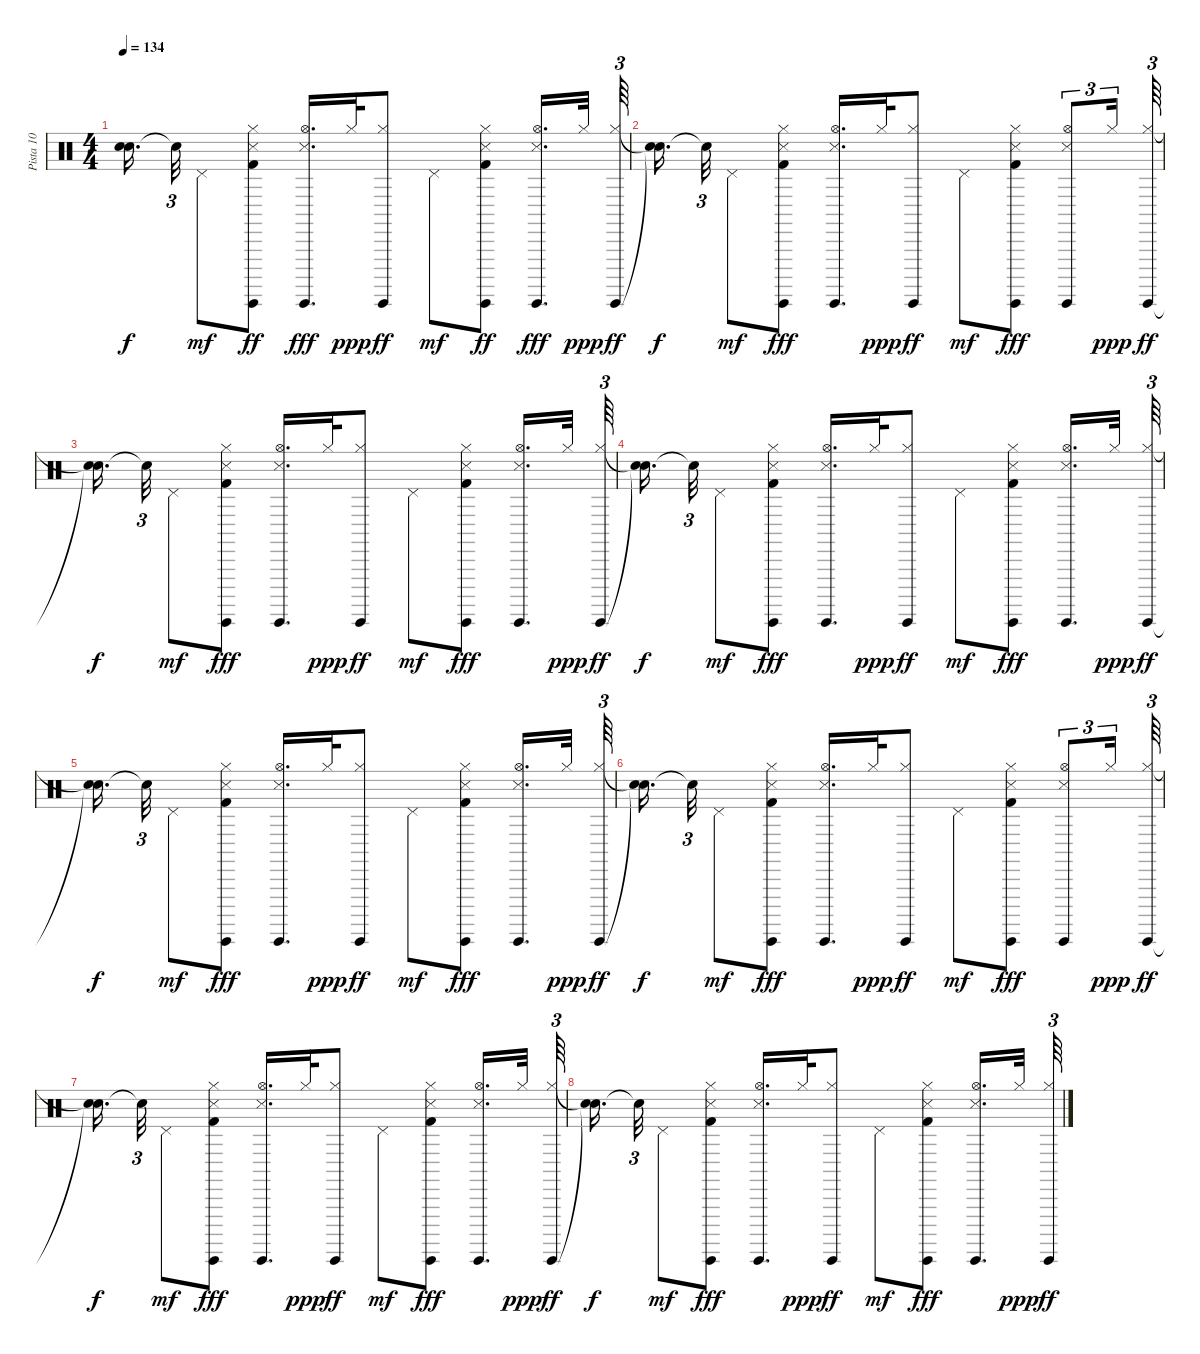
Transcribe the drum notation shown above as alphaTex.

\track ("Pista 10" "Pista 10") {instrument percussion}
\staff {score}
\articulation defaults
\ts (4 4)
\tempo 134
\clef neutral
\ks c
("Snare (hit)"{t} "Snare (hit)"{t}).16{d dy f beam splitsecondary} "Snare (hit)"{t}.32{tu (3 2)} "Pedal Hi-Hat (hit)".8{dy mf} ("Hi-Hat (closed)" "Guiro (hit)" "Snare (side stick) 3" "Kick (hit) 2").8{dy ff} ("Hi-Hat (open)" "Guiro (hit)" "Snare (side stick) 3").16{d dy fff} "Hi-Hat (closed)".32{dy ppp} ("Hi-Hat (closed)" "Guiro (hit)").8{dy ff} "Pedal Hi-Hat (hit)".8{dy mf} ("Hi-Hat (closed)" "Guiro (hit)" "Snare (side stick) 3" "Kick (hit) 2").8{dy ff} ("Hi-Hat (open)" "Guiro (hit)" "Snare (side stick) 3").16{d dy fff} "Hi-Hat (closed)".32{dy ppp} ("Hi-Hat (closed)" "Guiro (hit)").64{tu (3 2) dy ff} |
("Snare (hit)"{t} "Snare (hit)"{t}).16{d dy f beam splitsecondary} "Snare (hit)"{t}.32{tu (3 2)} "Pedal Hi-Hat (hit)".8{dy mf} ("Hi-Hat (closed)" "Guiro (hit)" "Kick (hit) 2" "Snare (side stick) 3").8{dy fff} ("Hi-Hat (open)" "Guiro (hit)" "Snare (side stick) 3").16{d} "Hi-Hat (closed)".32{dy ppp} ("Hi-Hat (closed)" "Guiro (hit)").8{dy ff} "Pedal Hi-Hat (hit)".8{dy mf} ("Hi-Hat (closed)" "Guiro (hit)" "Kick (hit) 2" "Snare (side stick) 3").8{dy fff} ("Hi-Hat (open)" "Guiro (hit)" "Snare (side stick) 3").8{tu (3 2)} "Hi-Hat (closed)".16{tu (3 2) dy ppp} ("Hi-Hat (closed)" "Guiro (hit)").64{tu (3 2) dy ff} |
("Snare (hit)"{t} "Snare (hit)"{t}).16{d dy f beam splitsecondary} "Snare (hit)"{t}.32{tu (3 2)} "Pedal Hi-Hat (hit)".8{dy mf} ("Hi-Hat (closed)" "Guiro (hit)" "Kick (hit) 2" "Snare (side stick) 3").8{dy fff} ("Hi-Hat (open)" "Guiro (hit)" "Snare (side stick) 3").16{d} "Hi-Hat (closed)".32{dy ppp} ("Hi-Hat (closed)" "Guiro (hit)").8{dy ff} "Pedal Hi-Hat (hit)".8{dy mf} ("Hi-Hat (closed)" "Guiro (hit)" "Kick (hit) 2" "Snare (side stick) 3").8{dy fff} ("Hi-Hat (open)" "Guiro (hit)" "Snare (side stick) 3").16{d} "Hi-Hat (closed)".32{dy ppp} ("Hi-Hat (closed)" "Guiro (hit)").64{tu (3 2) dy ff} |
("Snare (hit)"{t} "Snare (hit)"{t}).16{d dy f beam splitsecondary} "Snare (hit)"{t}.32{tu (3 2)} "Pedal Hi-Hat (hit)".8{dy mf} ("Hi-Hat (closed)" "Guiro (hit)" "Kick (hit) 2" "Snare (side stick) 3").8{dy fff} ("Hi-Hat (open)" "Guiro (hit)" "Snare (side stick) 3").16{d} "Hi-Hat (closed)".32{dy ppp} ("Hi-Hat (closed)" "Guiro (hit)").8{dy ff} "Pedal Hi-Hat (hit)".8{dy mf} ("Hi-Hat (closed)" "Guiro (hit)" "Kick (hit) 2" "Snare (side stick) 3").8{dy fff} ("Hi-Hat (open)" "Guiro (hit)" "Snare (side stick) 3").16{d} "Hi-Hat (closed)".32{dy ppp} ("Hi-Hat (closed)" "Guiro (hit)").64{tu (3 2) dy ff} |
("Snare (hit)"{t} "Snare (hit)"{t}).16{d dy f beam splitsecondary} "Snare (hit)"{t}.32{tu (3 2)} "Pedal Hi-Hat (hit)".8{dy mf} ("Hi-Hat (closed)" "Guiro (hit)" "Kick (hit) 2" "Snare (side stick) 3").8{dy fff} ("Hi-Hat (open)" "Guiro (hit)" "Snare (side stick) 3").16{d} "Hi-Hat (closed)".32{dy ppp} ("Hi-Hat (closed)" "Guiro (hit)").8{dy ff} "Pedal Hi-Hat (hit)".8{dy mf} ("Hi-Hat (closed)" "Guiro (hit)" "Kick (hit) 2" "Snare (side stick) 3").8{dy fff} ("Hi-Hat (open)" "Guiro (hit)" "Snare (side stick) 3").16{d} "Hi-Hat (closed)".32{dy ppp} ("Guiro (hit)" "Hi-Hat (closed)").64{tu (3 2) dy ff} |
("Snare (hit)"{t} "Snare (hit)"{t}).16{d dy f beam splitsecondary} "Snare (hit)"{t}.32{tu (3 2)} "Pedal Hi-Hat (hit)".8{dy mf} ("Guiro (hit)" "Hi-Hat (closed)" "Kick (hit) 2" "Snare (side stick) 3").8{dy fff} ("Guiro (hit)" "Hi-Hat (open)" "Snare (side stick) 3").16{d} "Hi-Hat (closed)".32{dy ppp} ("Guiro (hit)" "Hi-Hat (closed)").8{dy ff} "Pedal Hi-Hat (hit)".8{dy mf} ("Guiro (hit)" "Hi-Hat (closed)" "Kick (hit) 2" "Snare (side stick) 3").8{dy fff} ("Guiro (hit)" "Hi-Hat (open)" "Snare (side stick) 3").8{tu (3 2)} "Hi-Hat (closed)".16{tu (3 2) dy ppp} ("Guiro (hit)" "Hi-Hat (closed)").64{tu (3 2) dy ff} |
("Snare (hit)"{t} "Snare (hit)"{t}).16{d dy f beam splitsecondary} "Snare (hit)"{t}.32{tu (3 2)} "Pedal Hi-Hat (hit)".8{dy mf} ("Guiro (hit)" "Hi-Hat (closed)" "Kick (hit) 2" "Snare (side stick) 3").8{dy fff} ("Guiro (hit)" "Hi-Hat (open)" "Snare (side stick) 3").16{d} "Hi-Hat (closed)".32{dy ppp} ("Guiro (hit)" "Hi-Hat (closed)").8{dy ff} "Pedal Hi-Hat (hit)".8{dy mf} ("Guiro (hit)" "Hi-Hat (closed)" "Kick (hit) 2" "Snare (side stick) 3").8{dy fff} ("Guiro (hit)" "Hi-Hat (open)" "Snare (side stick) 3").16{d} "Hi-Hat (closed)".32{dy ppp} ("Guiro (hit)" "Hi-Hat (closed)").64{tu (3 2) dy ff} |
("Snare (hit)"{t} "Snare (hit)"{t}).16{d dy f beam splitsecondary} "Snare (hit)"{t}.32{tu (3 2)} "Pedal Hi-Hat (hit)".8{dy mf} ("Guiro (hit)" "Hi-Hat (closed)" "Kick (hit) 2" "Snare (side stick) 3").8{dy fff} ("Guiro (hit)" "Hi-Hat (open)" "Snare (side stick) 3").16{d} "Hi-Hat (closed)".32{dy ppp} ("Guiro (hit)" "Hi-Hat (closed)").8{dy ff} "Pedal Hi-Hat (hit)".8{dy mf} ("Guiro (hit)" "Hi-Hat (closed)" "Kick (hit) 2" "Snare (side stick) 3").8{dy fff} ("Guiro (hit)" "Hi-Hat (open)" "Snare (side stick) 3").16{d} "Hi-Hat (closed)".32{dy ppp} ("Guiro (hit)" "Hi-Hat (closed)").64{tu (3 2) dy ff}
